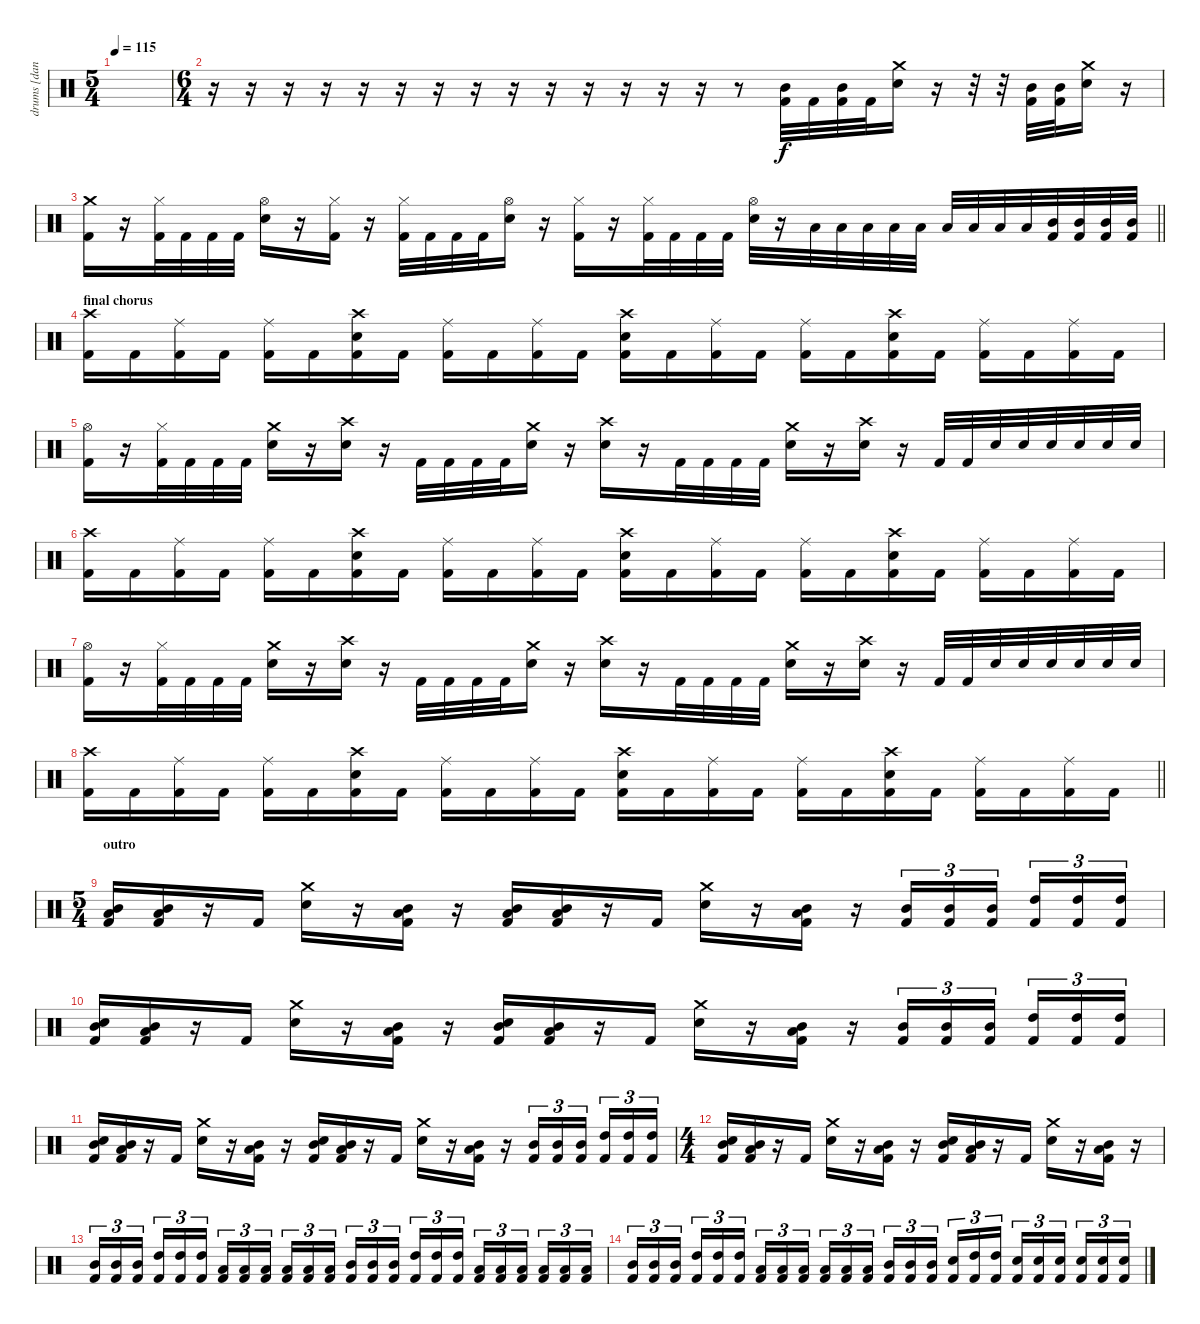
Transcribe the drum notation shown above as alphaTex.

\track ("drums [danny carey]" "drums [dan") {instrument percussion}
\staff {score}
\articulation defaults
\ts (5 4)
\tempo 115
\clef neutral
\ks c
|
\ts (6 4)
r.16 r.16 r.16 r.16 r.16 r.16 r.16 r.16 r.16 r.16 r.16 r.16 r.16 r.16 r.8 ("Mid Tom (hit)" "Kick (hit) 2").32 "Kick (hit) 2".32 ("Mid Tom (hit)" "Kick (hit) 2").32 "Kick (hit) 2".32 ("Crash medium (hit)" "Electric Snare (hit)").16 r.16 r.32 r.32 ("Mid Tom (hit)" "Kick (hit) 2").32 ("Mid Tom (hit)" "Kick (hit) 2").32 ("Crash medium (hit)" "Electric Snare (hit)").16 r.16 |
\barLineRight lightlight
("Crash medium (hit)" "Kick (hit) 2").16 r.16 ("Hi-Hat (closed)" "Kick (hit) 2").32 "Kick (hit) 2".32 "Kick (hit) 2".32 "Kick (hit) 2".32 ("Hi-Hat (open)" "Electric Snare (hit)").16 r.16 ("Hi-Hat (closed)" "Kick (hit) 2").16 r.16 ("Hi-Hat (closed)" "Kick (hit) 2").32 "Kick (hit) 2".32 "Kick (hit) 2".32 "Kick (hit) 2".32 ("Hi-Hat (open)" "Electric Snare (hit)").16 r.16 ("Hi-Hat (closed)" "Kick (hit) 2").16 r.16 ("Hi-Hat (closed)" "Kick (hit) 2").32 "Kick (hit) 2".32 "Kick (hit) 2".32 "Kick (hit) 2".32 ("Hi-Hat (open)" "Electric Snare (hit)").32 r.16 "Low Tom (hit)".32 "Low Tom (hit)".32 "Low Tom (hit)".32 "Low Tom (hit)".32 "Low Tom (hit)".32 "Low Tom (hit)".32 "Low Tom (hit)".32 "Low Tom (hit)".32 "Low Tom (hit)".32 ("Mid Tom (hit)" "Kick (hit) 2").32 ("Mid Tom (hit)" "Kick (hit) 2").32 ("Mid Tom (hit)" "Kick (hit) 2").32 ("Mid Tom (hit)" "Kick (hit) 2").32 |
\section ("" "final chorus")
("Crash high (hit)" "Kick (hit) 2").16 "Kick (hit) 2".16 ("Ride (middle)" "Kick (hit) 2").16 "Kick (hit) 2".16 ("Ride (middle)" "Kick (hit) 2").16 "Kick (hit) 2".16 ("Crash high (hit)" "Electric Snare (hit)" "Kick (hit) 2").16 "Kick (hit) 2".16 ("Ride (middle)" "Kick (hit) 2").16 "Kick (hit) 2".16 ("Ride (middle)" "Kick (hit) 2").16 "Kick (hit) 2".16 ("Crash high (hit)" "Electric Snare (hit)" "Kick (hit) 2").16 "Kick (hit) 2".16 ("Ride (middle)" "Kick (hit) 2").16 "Kick (hit) 2".16 ("Ride (middle)" "Kick (hit) 2").16 "Kick (hit) 2".16 ("Crash high (hit)" "Electric Snare (hit)" "Kick (hit) 2").16 "Kick (hit) 2".16 ("Ride (middle)" "Kick (hit) 2").16 "Kick (hit) 2".16 ("Ride (middle)" "Kick (hit) 2").16 "Kick (hit) 2".16 |
("Hi-Hat (open)" "Kick (hit) 2").16 r.16 ("Hi-Hat (closed)" "Kick (hit) 2").32 "Kick (hit) 2".32 "Kick (hit) 2".32 "Kick (hit) 2".32 ("Crash medium (hit)" "Electric Snare (hit)").16 r.16 ("Crash high (hit)" "Electric Snare (hit)").16 r.16 "Kick (hit) 2".32 "Kick (hit) 2".32 "Kick (hit) 2".32 "Kick (hit) 2".32 ("Crash medium (hit)" "Electric Snare (hit)").16 r.16 ("Crash high (hit)" "Electric Snare (hit)").16 r.16 "Kick (hit) 2".32 "Kick (hit) 2".32 "Kick (hit) 2".32 "Kick (hit) 2".32 ("Crash medium (hit)" "Electric Snare (hit)").16 r.16 ("Crash high (hit)" "Electric Snare (hit)").16 r.16 "Kick (hit) 2".32 "Kick (hit) 2".32 "Electric Snare (hit)".32 "Electric Snare (hit)".32 "Electric Snare (hit)".32 "Electric Snare (hit)".32 "Electric Snare (hit)".32 "Electric Snare (hit)".32 |
("Crash high (hit)" "Kick (hit) 2").16 "Kick (hit) 2".16 ("Ride (middle)" "Kick (hit) 2").16 "Kick (hit) 2".16 ("Ride (middle)" "Kick (hit) 2").16 "Kick (hit) 2".16 ("Crash high (hit)" "Electric Snare (hit)" "Kick (hit) 2").16 "Kick (hit) 2".16 ("Ride (middle)" "Kick (hit) 2").16 "Kick (hit) 2".16 ("Ride (middle)" "Kick (hit) 2").16 "Kick (hit) 2".16 ("Crash high (hit)" "Electric Snare (hit)" "Kick (hit) 2").16 "Kick (hit) 2".16 ("Ride (middle)" "Kick (hit) 2").16 "Kick (hit) 2".16 ("Ride (middle)" "Kick (hit) 2").16 "Kick (hit) 2".16 ("Crash high (hit)" "Electric Snare (hit)" "Kick (hit) 2").16 "Kick (hit) 2".16 ("Ride (middle)" "Kick (hit) 2").16 "Kick (hit) 2".16 ("Ride (middle)" "Kick (hit) 2").16 "Kick (hit) 2".16 |
("Hi-Hat (open)" "Kick (hit) 2").16 r.16 ("Hi-Hat (closed)" "Kick (hit) 2").32 "Kick (hit) 2".32 "Kick (hit) 2".32 "Kick (hit) 2".32 ("Crash medium (hit)" "Electric Snare (hit)").16 r.16 ("Crash high (hit)" "Electric Snare (hit)").16 r.16 "Kick (hit) 2".32 "Kick (hit) 2".32 "Kick (hit) 2".32 "Kick (hit) 2".32 ("Crash medium (hit)" "Electric Snare (hit)").16 r.16 ("Crash high (hit)" "Electric Snare (hit)").16 r.16 "Kick (hit) 2".32 "Kick (hit) 2".32 "Kick (hit) 2".32 "Kick (hit) 2".32 ("Crash medium (hit)" "Electric Snare (hit)").16 r.16 ("Crash high (hit)" "Electric Snare (hit)").16 r.16 "Kick (hit) 2".32 "Kick (hit) 2".32 "Electric Snare (hit)".32 "Electric Snare (hit)".32 "Electric Snare (hit)".32 "Electric Snare (hit)".32 "Electric Snare (hit)".32 "Electric Snare (hit)".32 |
\barLineRight lightlight
("Crash high (hit)" "Kick (hit) 2").16 "Kick (hit) 2".16 ("Ride (middle)" "Kick (hit) 2").16 "Kick (hit) 2".16 ("Ride (middle)" "Kick (hit) 2").16 "Kick (hit) 2".16 ("Crash high (hit)" "Electric Snare (hit)" "Kick (hit) 2").16 "Kick (hit) 2".16 ("Ride (middle)" "Kick (hit) 2").16 "Kick (hit) 2".16 ("Ride (middle)" "Kick (hit) 2").16 "Kick (hit) 2".16 ("Crash high (hit)" "Electric Snare (hit)" "Kick (hit) 2").16 "Kick (hit) 2".16 ("Ride (middle)" "Kick (hit) 2").16 "Kick (hit) 2".16 ("Ride (middle)" "Kick (hit) 2").16 "Kick (hit) 2".16 ("Crash high (hit)" "Electric Snare (hit)" "Kick (hit) 2").16 "Kick (hit) 2".16 ("Ride (middle)" "Kick (hit) 2").16 "Kick (hit) 2".16 ("Ride (middle)" "Kick (hit) 2").16 "Kick (hit) 2".16 |
\ts (5 4)
\section ("" "outro")
("Mid Tom (hit)" "Low Tom (hit)" "Kick (hit) 2").16 ("Mid Tom (hit)" "Low Tom (hit)" "Kick (hit) 2").16 r.16 "Kick (hit) 2".16 ("Crash medium (hit)" "Electric Snare (hit)").16 r.16 ("Mid Tom (hit)" "Low Tom (hit)" "Kick (hit) 2").16 r.16 ("Mid Tom (hit)" "Low Tom (hit)" "Kick (hit) 2").16 ("Mid Tom (hit)" "Low Tom (hit)" "Kick (hit) 2").16 r.16 "Kick (hit) 2".16 ("Crash medium (hit)" "Electric Snare (hit)").16 r.16 ("Mid Tom (hit)" "Low Tom (hit)" "Kick (hit) 2").16 r.16 ("Mid Tom (hit)" "Kick (hit) 2").16{tu (3 2)} ("Mid Tom (hit)" "Kick (hit) 2").16{tu (3 2)} ("Mid Tom (hit)" "Kick (hit) 2").16{tu (3 2) beam splitsecondary} ("High Tom (hit)" "Kick (hit) 2").16{tu (3 2)} ("High Tom (hit)" "Kick (hit) 2").16{tu (3 2)} ("High Tom (hit)" "Kick (hit) 2").16{tu (3 2)} |
("Mid Tom (hit)" "Electric Snare (hit)" "Kick (hit) 2").16 ("Mid Tom (hit)" "Low Tom (hit)" "Kick (hit) 2").16 r.16 "Kick (hit) 2".16 ("Crash medium (hit)" "Electric Snare (hit)").16 r.16 ("Mid Tom (hit)" "Low Tom (hit)" "Kick (hit) 2").16 r.16 ("Mid Tom (hit)" "Electric Snare (hit)" "Kick (hit) 2").16 ("Mid Tom (hit)" "Low Tom (hit)" "Kick (hit) 2").16 r.16 "Kick (hit) 2".16 ("Crash medium (hit)" "Electric Snare (hit)").16 r.16 ("Mid Tom (hit)" "Low Tom (hit)" "Kick (hit) 2").16 r.16 ("Mid Tom (hit)" "Kick (hit) 2").16{tu (3 2)} ("Mid Tom (hit)" "Kick (hit) 2").16{tu (3 2)} ("Mid Tom (hit)" "Kick (hit) 2").16{tu (3 2) beam splitsecondary} ("High Tom (hit)" "Kick (hit) 2").16{tu (3 2)} ("High Tom (hit)" "Kick (hit) 2").16{tu (3 2)} ("High Tom (hit)" "Kick (hit) 2").16{tu (3 2)} |
("Mid Tom (hit)" "Electric Snare (hit)" "Kick (hit) 2").16 ("Mid Tom (hit)" "Low Tom (hit)" "Kick (hit) 2").16 r.16 "Kick (hit) 2".16 ("Crash medium (hit)" "Electric Snare (hit)").16 r.16 ("Mid Tom (hit)" "Low Tom (hit)" "Kick (hit) 2").16 r.16 ("Mid Tom (hit)" "Electric Snare (hit)" "Kick (hit) 2").16 ("Mid Tom (hit)" "Low Tom (hit)" "Kick (hit) 2").16 r.16 "Kick (hit) 2".16 ("Crash medium (hit)" "Electric Snare (hit)").16 r.16 ("Mid Tom (hit)" "Low Tom (hit)" "Kick (hit) 2").16 r.16 ("Mid Tom (hit)" "Kick (hit) 2").16{tu (3 2)} ("Mid Tom (hit)" "Kick (hit) 2").16{tu (3 2)} ("Mid Tom (hit)" "Kick (hit) 2").16{tu (3 2) beam splitsecondary} ("High Tom (hit)" "Kick (hit) 2").16{tu (3 2)} ("High Tom (hit)" "Kick (hit) 2").16{tu (3 2)} ("High Tom (hit)" "Kick (hit) 2").16{tu (3 2)} |
\ts (4 4)
("Mid Tom (hit)" "Electric Snare (hit)" "Kick (hit) 2").16 ("Mid Tom (hit)" "Low Tom (hit)" "Kick (hit) 2").16 r.16 "Kick (hit) 2".16 ("Crash medium (hit)" "Electric Snare (hit)").16 r.16 ("Mid Tom (hit)" "Low Tom (hit)" "Kick (hit) 2").16 r.16 ("Mid Tom (hit)" "Electric Snare (hit)" "Kick (hit) 2").16 ("Mid Tom (hit)" "Low Tom (hit)" "Kick (hit) 2").16 r.16 "Kick (hit) 2".16 ("Crash medium (hit)" "Electric Snare (hit)").16 r.16 ("Mid Tom (hit)" "Low Tom (hit)" "Kick (hit) 2").16 r.16 |
("Mid Tom (hit)" "Kick (hit) 2").16{tu (3 2)} ("Mid Tom (hit)" "Kick (hit) 2").16{tu (3 2)} ("Mid Tom (hit)" "Kick (hit) 2").16{tu (3 2) beam splitsecondary} ("High Tom (hit)" "Kick (hit) 2").16{tu (3 2)} ("High Tom (hit)" "Kick (hit) 2").16{tu (3 2)} ("High Tom (hit)" "Kick (hit) 2").16{tu (3 2)} ("Low Tom (hit)" "Kick (hit) 2").16{tu (3 2)} ("Low Tom (hit)" "Kick (hit) 2").16{tu (3 2)} ("Low Tom (hit)" "Kick (hit) 2").16{tu (3 2) beam splitsecondary} ("Low Floor Tom (hit)" "Kick (hit) 2").16{tu (3 2)} ("Low Floor Tom (hit)" "Kick (hit) 2").16{tu (3 2)} ("Low Floor Tom (hit)" "Kick (hit) 2").16{tu (3 2)} ("Mid Tom (hit)" "Kick (hit) 2").16{tu (3 2)} ("Mid Tom (hit)" "Kick (hit) 2").16{tu (3 2)} ("Mid Tom (hit)" "Kick (hit) 2").16{tu (3 2) beam splitsecondary} ("High Tom (hit)" "Kick (hit) 2").16{tu (3 2)} ("High Tom (hit)" "Kick (hit) 2").16{tu (3 2)} ("High Tom (hit)" "Kick (hit) 2").16{tu (3 2)} ("Low Tom (hit)" "Kick (hit) 2").16{tu (3 2)} ("Low Tom (hit)" "Kick (hit) 2").16{tu (3 2)} ("Low Tom (hit)" "Kick (hit) 2").16{tu (3 2) beam splitsecondary} ("Low Floor Tom (hit)" "Kick (hit) 2").16{tu (3 2)} ("Low Floor Tom (hit)" "Kick (hit) 2").16{tu (3 2)} ("Low Floor Tom (hit)" "Kick (hit) 2").16{tu (3 2)} |
("Mid Tom (hit)" "Kick (hit) 2").16{tu (3 2)} ("Mid Tom (hit)" "Kick (hit) 2").16{tu (3 2)} ("Mid Tom (hit)" "Kick (hit) 2").16{tu (3 2) beam splitsecondary} ("High Tom (hit)" "Kick (hit) 2").16{tu (3 2)} ("High Tom (hit)" "Kick (hit) 2").16{tu (3 2)} ("High Tom (hit)" "Kick (hit) 2").16{tu (3 2)} ("Low Tom (hit)" "Kick (hit) 2").16{tu (3 2)} ("Low Tom (hit)" "Kick (hit) 2").16{tu (3 2)} ("Low Tom (hit)" "Kick (hit) 2").16{tu (3 2) beam splitsecondary} ("Low Floor Tom (hit)" "Kick (hit) 2").16{tu (3 2)} ("Low Floor Tom (hit)" "Kick (hit) 2").16{tu (3 2)} ("Low Floor Tom (hit)" "Kick (hit) 2").16{tu (3 2)} ("Mid Tom (hit)" "Kick (hit) 2").16{tu (3 2)} ("Mid Tom (hit)" "Kick (hit) 2").16{tu (3 2)} ("Mid Tom (hit)" "Kick (hit) 2").16{tu (3 2) beam splitsecondary} ("Electric Snare (hit)" "Kick (hit) 2").16{tu (3 2)} ("High Tom (hit)" "Kick (hit) 2").16{tu (3 2)} ("High Tom (hit)" "Kick (hit) 2").16{tu (3 2)} ("Electric Snare (hit)" "Kick (hit) 2").16{tu (3 2)} ("Electric Snare (hit)" "Kick (hit) 2").16{tu (3 2)} ("Electric Snare (hit)" "Kick (hit) 2").16{tu (3 2) beam splitsecondary} ("Electric Snare (hit)" "Kick (hit) 2").16{tu (3 2)} ("Electric Snare (hit)" "Kick (hit) 2").16{tu (3 2)} ("Electric Snare (hit)" "Kick (hit) 2").16{tu (3 2)}
